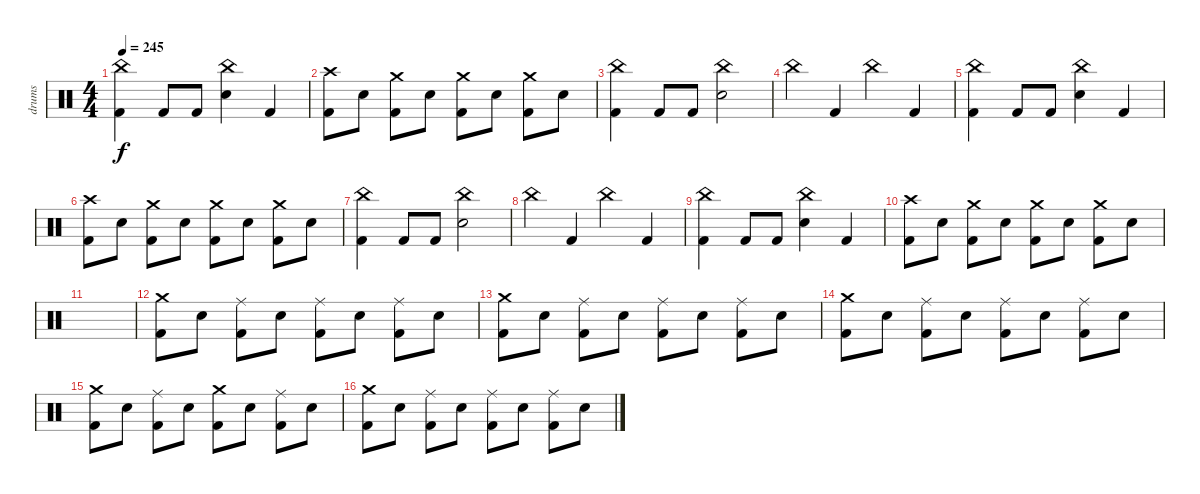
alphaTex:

\track ("drums" "drums") {instrument percussion}
\staff {score}
\articulation defaults
\ts (4 4)
\tempo 245
\clef neutral
\ks c
("China (hit)" "Kick (hit) 2").4{dy f} "Kick (hit) 2".8 "Kick (hit) 2".8 ("China (hit)" "Electric Snare (hit)").4 "Kick (hit) 2".4 |
("Crash high (hit)" "Kick (hit) 2").8 "Electric Snare (hit)".8 ("Crash medium (hit)" "Kick (hit) 2").8 "Electric Snare (hit)".8 ("Crash medium (hit)" "Kick (hit) 2").8 "Electric Snare (hit)".8 ("Crash medium (hit)" "Kick (hit) 2").8 "Electric Snare (hit)".8 |
("China (hit)" "Kick (hit) 2").4 "Kick (hit) 2".8 "Kick (hit) 2".8 ("China (hit)" "Electric Snare (hit)").2 |
"China (hit)".4 "Kick (hit) 2".4 "China (hit)".4 "Kick (hit) 2".4 |
("China (hit)" "Kick (hit) 2").4 "Kick (hit) 2".8 "Kick (hit) 2".8 ("China (hit)" "Electric Snare (hit)").4 "Kick (hit) 2".4 |
("Crash high (hit)" "Kick (hit) 2").8 "Electric Snare (hit)".8 ("Crash medium (hit)" "Kick (hit) 2").8 "Electric Snare (hit)".8 ("Crash medium (hit)" "Kick (hit) 2").8 "Electric Snare (hit)".8 ("Crash medium (hit)" "Kick (hit) 2").8 "Electric Snare (hit)".8 |
("China (hit)" "Kick (hit) 2").4 "Kick (hit) 2".8 "Kick (hit) 2".8 ("China (hit)" "Electric Snare (hit)").2 |
"China (hit)".4 "Kick (hit) 2".4 "China (hit)".4 "Kick (hit) 2".4 |
("China (hit)" "Kick (hit) 2").4 "Kick (hit) 2".8 "Kick (hit) 2".8 ("China (hit)" "Electric Snare (hit)").4 "Kick (hit) 2".4 |
("Crash high (hit)" "Kick (hit) 2").8 "Electric Snare (hit)".8 ("Crash medium (hit)" "Kick (hit) 2").8 "Electric Snare (hit)".8 ("Crash medium (hit)" "Kick (hit) 2").8 "Electric Snare (hit)".8 ("Crash medium (hit)" "Kick (hit) 2").8 "Electric Snare (hit)".8 |
|
("Crash medium (hit)" "Kick (hit) 2").8 "Electric Snare (hit)".8 ("Ride (middle)" "Kick (hit) 2").8 "Electric Snare (hit)".8 ("Ride (middle)" "Kick (hit) 2").8 "Electric Snare (hit)".8 ("Ride (middle)" "Kick (hit) 2").8 "Electric Snare (hit)".8 |
("Crash medium (hit)" "Kick (hit) 2").8 "Electric Snare (hit)".8 ("Ride (middle)" "Kick (hit) 2").8 "Electric Snare (hit)".8 ("Ride (middle)" "Kick (hit) 2").8 "Electric Snare (hit)".8 ("Ride (middle)" "Kick (hit) 2").8 "Electric Snare (hit)".8 |
("Crash medium (hit)" "Kick (hit) 2").8 "Electric Snare (hit)".8 ("Ride (middle)" "Kick (hit) 2").8 "Electric Snare (hit)".8 ("Ride (middle)" "Kick (hit) 2").8 "Electric Snare (hit)".8 ("Ride (middle)" "Kick (hit) 2").8 "Electric Snare (hit)".8 |
("Crash medium (hit)" "Kick (hit) 2").8 "Electric Snare (hit)".8 ("Ride (middle)" "Kick (hit) 2").8 "Electric Snare (hit)".8 ("Crash medium (hit)" "Kick (hit) 2").8 "Electric Snare (hit)".8 ("Ride (middle)" "Kick (hit) 2").8 "Electric Snare (hit)".8 |
("Crash medium (hit)" "Kick (hit) 2").8 "Electric Snare (hit)".8 ("Ride (middle)" "Kick (hit) 2").8 "Electric Snare (hit)".8 ("Ride (middle)" "Kick (hit) 2").8 "Electric Snare (hit)".8 ("Ride (middle)" "Kick (hit) 2").8 "Electric Snare (hit)".8
